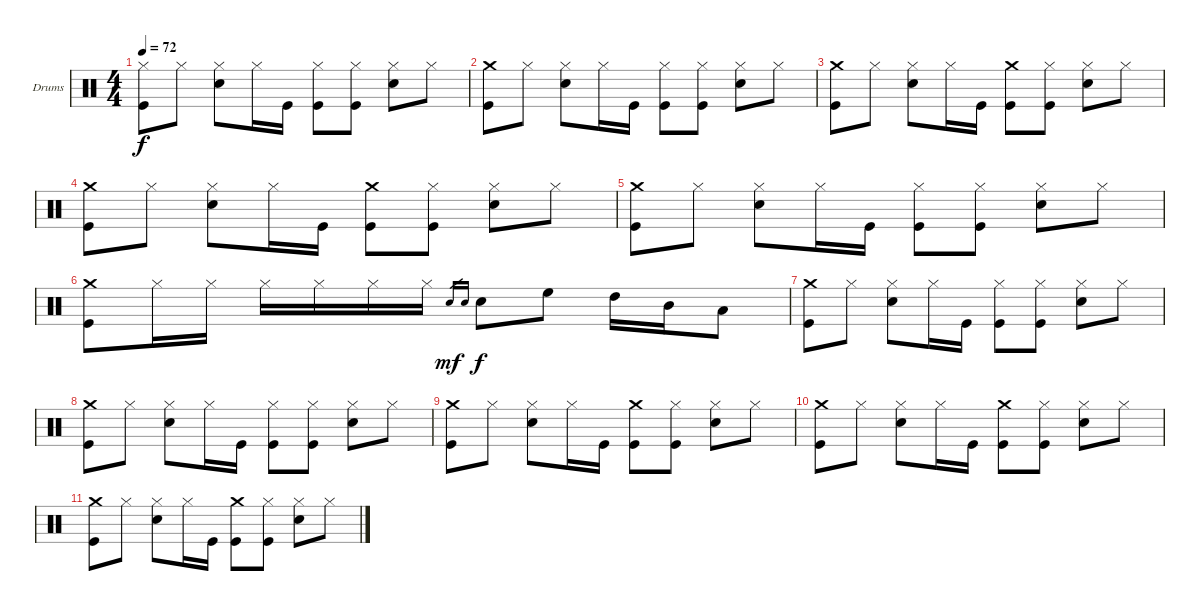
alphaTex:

\bracketExtendMode groupsimilarinstruments
\firstSystemTrackNameOrientation horizontal
\otherSystemsTrackNameOrientation horizontal
\track ("Roger Taylor" "Drums") {multiBarRest instrument percussion}
\staff {score}
\articulation defaults
\ts (4 4)
\tempo 72
\clef neutral
\ks c
("Hi-Hat (closed)" "Kick (hit)").8{dy f} "Hi-Hat (closed)".8 ("Hi-Hat (closed)" "Snare (hit) 2").8 "Hi-Hat (closed)".16 "Kick (hit)".16 ("Hi-Hat (closed)" "Kick (hit)").8 ("Hi-Hat (closed)" "Kick (hit)").8 ("Hi-Hat (closed)" "Snare (hit) 2").8 "Hi-Hat (closed)".8 |
("Crash medium (hit)" "Kick (hit)").8 "Hi-Hat (closed)".8 ("Hi-Hat (closed)" "Snare (hit) 2").8 "Hi-Hat (closed)".16 "Kick (hit)".16 ("Hi-Hat (closed)" "Kick (hit)").8 ("Hi-Hat (closed)" "Kick (hit)").8 ("Hi-Hat (closed)" "Snare (hit) 2").8 "Hi-Hat (closed)".8 |
("Crash medium (hit)" "Kick (hit)").8 "Hi-Hat (closed)".8 ("Hi-Hat (closed)" "Snare (hit) 2").8 "Hi-Hat (closed)".16 "Kick (hit)".16 ("Crash medium (hit)" "Kick (hit)").8 ("Hi-Hat (closed)" "Kick (hit)").8 ("Hi-Hat (closed)" "Snare (hit) 2").8 "Hi-Hat (closed)".8 |
("Crash medium (hit)" "Kick (hit)").8 "Hi-Hat (closed)".8 ("Hi-Hat (closed)" "Snare (hit) 2").8 "Hi-Hat (closed)".16 "Kick (hit)".16 ("Crash medium (hit)" "Kick (hit)").8 ("Hi-Hat (closed)" "Kick (hit)").8 ("Hi-Hat (closed)" "Snare (hit) 2").8 "Hi-Hat (closed)".8 |
("Crash medium (hit)" "Kick (hit)").8 "Hi-Hat (closed)".8 ("Hi-Hat (closed)" "Snare (hit) 2").8 "Hi-Hat (closed)".16 "Kick (hit)".16 ("Hi-Hat (closed)" "Kick (hit)").8 ("Hi-Hat (closed)" "Kick (hit)").8 ("Hi-Hat (closed)" "Snare (hit) 2").8 "Hi-Hat (closed)".8 |
("Crash medium (hit)" "Kick (hit)").8 "Hi-Hat (closed)".16 "Hi-Hat (closed)".16 "Hi-Hat (closed)".16 "Hi-Hat (closed)".16 "Hi-Hat (closed)".16 "Hi-Hat (closed)".16 "Snare (hit) 2".16{gr dy mf} "Snare (hit) 2".16{gr} "Snare (hit) 2".8{dy f} "High Floor Tom (hit)".8 "High Tom (hit)".16 "Mid Tom (hit)".16 "Low Tom (hit)".8 |
("Crash medium (hit)" "Kick (hit)").8 "Hi-Hat (closed)".8 ("Hi-Hat (closed)" "Snare (hit) 2").8 "Hi-Hat (closed)".16 "Kick (hit)".16 ("Hi-Hat (closed)" "Kick (hit)").8 ("Hi-Hat (closed)" "Kick (hit)").8 ("Hi-Hat (closed)" "Snare (hit) 2").8 "Hi-Hat (closed)".8 |
("Crash medium (hit)" "Kick (hit)").8 "Hi-Hat (closed)".8 ("Hi-Hat (closed)" "Snare (hit) 2").8 "Hi-Hat (closed)".16 "Kick (hit)".16 ("Hi-Hat (closed)" "Kick (hit)").8 ("Hi-Hat (closed)" "Kick (hit)").8 ("Hi-Hat (closed)" "Snare (hit) 2").8 "Hi-Hat (closed)".8 |
("Crash medium (hit)" "Kick (hit)").8 "Hi-Hat (closed)".8 ("Hi-Hat (closed)" "Snare (hit) 2").8 "Hi-Hat (closed)".16 "Kick (hit)".16 ("Crash medium (hit)" "Kick (hit)").8 ("Hi-Hat (closed)" "Kick (hit)").8 ("Hi-Hat (closed)" "Snare (hit) 2").8 "Hi-Hat (closed)".8 |
("Crash medium (hit)" "Kick (hit)").8 "Hi-Hat (closed)".8 ("Hi-Hat (closed)" "Snare (hit) 2").8 "Hi-Hat (closed)".16 "Kick (hit)".16 ("Crash medium (hit)" "Kick (hit)").8 ("Hi-Hat (closed)" "Kick (hit)").8 ("Hi-Hat (closed)" "Snare (hit) 2").8 "Hi-Hat (closed)".8 |
("Crash medium (hit)" "Kick (hit)").8 "Hi-Hat (closed)".8 ("Hi-Hat (closed)" "Snare (hit) 2").8 "Hi-Hat (closed)".16 "Kick (hit)".16 ("Crash medium (hit)" "Kick (hit)").8 ("Hi-Hat (closed)" "Kick (hit)").8 ("Hi-Hat (closed)" "Snare (hit) 2").8 "Hi-Hat (closed)".8
